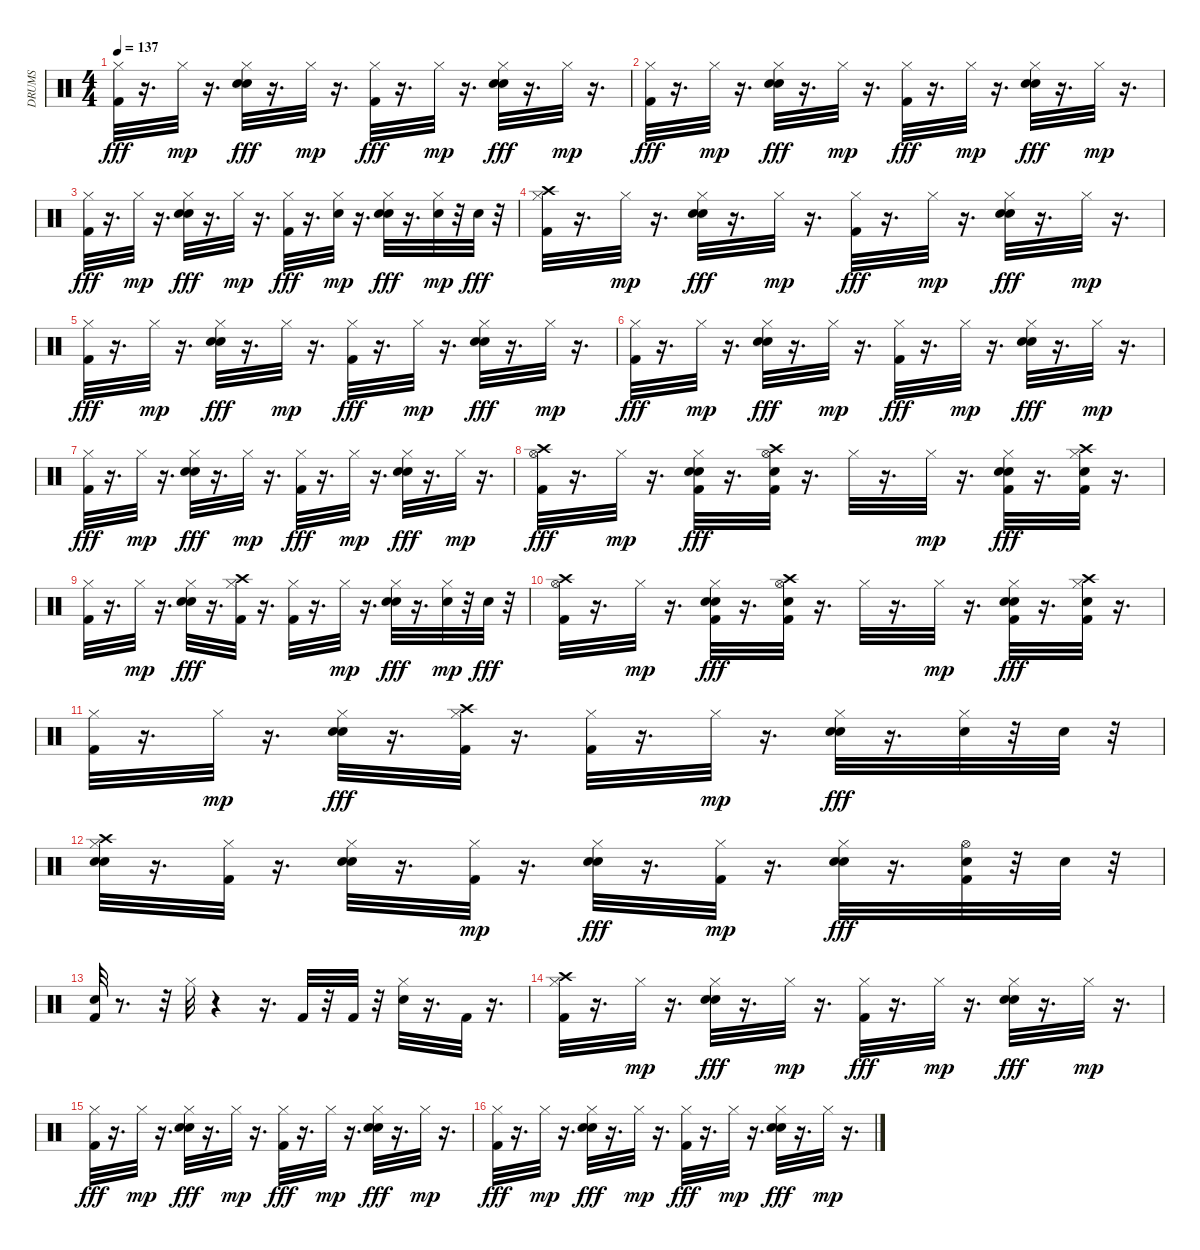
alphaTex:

\track ("DRUMS" "DRUMS") {instrument percussion}
\staff {score}
\articulation defaults
\ts (4 4)
\tempo 137
\clef neutral
\ks c
("Hi-Hat (closed)" "Kick (hit) 2").32{dy fff} r.16{d} "Hi-Hat (closed)".32{dy mp} r.16{d} ("Snare (hit) 2" "Hand Clap (hit)" "Hi-Hat (closed)").32{dy fff} r.16{d} "Hi-Hat (closed)".32{dy mp} r.16{d} ("Hi-Hat (closed)" "Kick (hit) 2").32{dy fff} r.16{d} "Hi-Hat (closed)".32{dy mp} r.16{d} ("Hand Clap (hit)" "Hi-Hat (closed)" "Snare (hit) 2").32{dy fff} r.16{d} "Hi-Hat (closed)".32{dy mp} r.16{d} |
("Hi-Hat (closed)" "Kick (hit) 2").32{dy fff} r.16{d} "Hi-Hat (closed)".32{dy mp} r.16{d} ("Hand Clap (hit)" "Hi-Hat (closed)" "Snare (hit) 2").32{dy fff} r.16{d} "Hi-Hat (closed)".32{dy mp} r.16{d} ("Hi-Hat (closed)" "Kick (hit) 2").32{dy fff} r.16{d} "Hi-Hat (closed)".32{dy mp} r.16{d} ("Hand Clap (hit)" "Hi-Hat (closed)" "Snare (hit) 2").32{dy fff} r.16{d} "Hi-Hat (closed)".32{dy mp} r.16{d} |
("Hi-Hat (closed)" "Kick (hit) 2").32{dy fff} r.16{d} "Hi-Hat (closed)".32{dy mp} r.16{d} ("Snare (hit) 2" "Hand Clap (hit)" "Hi-Hat (closed)").32{dy fff} r.16{d} "Hi-Hat (closed)".32{dy mp} r.16{d} ("Hi-Hat (closed)" "Kick (hit) 2").32{dy fff} r.16{d} ("Hand Clap (hit)" "Hi-Hat (closed)").32{dy mp} r.16{d} ("Hand Clap (hit)" "Hi-Hat (closed)" "Snare (hit) 2").32{dy fff} r.16{d} ("Snare (hit) 2" "Hi-Hat (closed)").32{dy mp} r.32 "Snare (hit) 2".32{dy fff} r.32 |
("Crash high (hit)" "Hi-Hat (closed)" "Kick (hit) 2").32 r.16{d} "Hi-Hat (closed)".32{dy mp} r.16{d} ("Hand Clap (hit)" "Hi-Hat (closed)" "Snare (hit) 2").32{dy fff} r.16{d} "Hi-Hat (closed)".32{dy mp} r.16{d} ("Hi-Hat (closed)" "Kick (hit) 2").32{dy fff} r.16{d} "Hi-Hat (closed)".32{dy mp} r.16{d} ("Hand Clap (hit)" "Hi-Hat (closed)" "Snare (hit) 2").32{dy fff} r.16{d} "Hi-Hat (closed)".32{dy mp} r.16{d} |
("Hi-Hat (closed)" "Kick (hit) 2").32{dy fff} r.16{d} "Hi-Hat (closed)".32{dy mp} r.16{d} ("Hand Clap (hit)" "Hi-Hat (closed)" "Snare (hit) 2").32{dy fff} r.16{d} "Hi-Hat (closed)".32{dy mp} r.16{d} ("Hi-Hat (closed)" "Kick (hit) 2").32{dy fff} r.16{d} "Hi-Hat (closed)".32{dy mp} r.16{d} ("Hand Clap (hit)" "Hi-Hat (closed)" "Snare (hit) 2").32{dy fff} r.16{d} "Hi-Hat (closed)".32{dy mp} r.16{d} |
("Hi-Hat (closed)" "Kick (hit) 2").32{dy fff} r.16{d} "Hi-Hat (closed)".32{dy mp} r.16{d} ("Hand Clap (hit)" "Hi-Hat (closed)" "Snare (hit) 2").32{dy fff} r.16{d} "Hi-Hat (closed)".32{dy mp} r.16{d} ("Hi-Hat (closed)" "Kick (hit) 2").32{dy fff} r.16{d} "Hi-Hat (closed)".32{dy mp} r.16{d} ("Snare (hit) 2" "Hand Clap (hit)" "Hi-Hat (closed)").32{dy fff} r.16{d} "Hi-Hat (closed)".32{dy mp} r.16{d} |
("Hi-Hat (closed)" "Kick (hit) 2").32{dy fff} r.16{d} "Hi-Hat (closed)".32{dy mp} r.16{d} ("Hand Clap (hit)" "Hi-Hat (closed)" "Snare (hit) 2").32{dy fff} r.16{d} "Hi-Hat (closed)".32{dy mp} r.16{d} ("Hi-Hat (closed)" "Kick (hit) 2").32{dy fff} r.16{d} "Hi-Hat (closed)".32{dy mp} r.16{d} ("Hand Clap (hit)" "Hi-Hat (closed)" "Snare (hit) 2").32{dy fff} r.16{d} "Hi-Hat (closed)".32{dy mp} r.16{d} |
("Crash high (hit)" "Hi-Hat (open)" "Kick (hit) 2").32{dy fff} r.16{d} "Hi-Hat (closed)".32{dy mp} r.16{d} ("Hand Clap (hit)" "Hi-Hat (closed)" "Snare (hit) 2" "Kick (hit) 2").32{dy fff} r.16{d} ("Crash high (hit)" "Hi-Hat (open)" "Snare (hit) 2" "Kick (hit) 2").32 r.16{d} "Hi-Hat (closed)".32 r.16{d} "Hi-Hat (closed)".32{dy mp} r.16{d} ("Hand Clap (hit)" "Hi-Hat (closed)" "Snare (hit) 2" "Kick (hit) 2").32{dy fff} r.16{d} ("Crash high (hit)" "Hi-Hat (closed)" "Snare (hit) 2" "Kick (hit) 2").32 r.16{d} |
("Hi-Hat (closed)" "Kick (hit) 2").32 r.16{d} "Hi-Hat (closed)".32{dy mp} r.16{d} ("Snare (hit) 2" "Hand Clap (hit)" "Hi-Hat (closed)").32{dy fff} r.16{d} ("Crash high (hit)" "Hi-Hat (closed)" "Kick (hit) 2").32 r.16{d} ("Hi-Hat (closed)" "Kick (hit) 2").32 r.16{d} "Hi-Hat (closed)".32{dy mp} r.16{d} ("Hand Clap (hit)" "Hi-Hat (closed)" "Snare (hit) 2").32{dy fff} r.16{d} ("Snare (hit) 2" "Hi-Hat (closed)").32{dy mp} r.32 "Snare (hit) 2".32{dy fff} r.32 |
("Hi-Hat (open)" "Crash high (hit)" "Kick (hit) 2").32 r.16{d} "Hi-Hat (closed)".32{dy mp} r.16{d} ("Hand Clap (hit)" "Hi-Hat (closed)" "Snare (hit) 2" "Kick (hit) 2").32{dy fff} r.16{d} ("Crash high (hit)" "Hi-Hat (open)" "Snare (hit) 2" "Kick (hit) 2").32 r.16{d} "Hi-Hat (closed)".32 r.16{d} "Hi-Hat (closed)".32{dy mp} r.16{d} ("Hand Clap (hit)" "Hi-Hat (closed)" "Snare (hit) 2" "Kick (hit) 2").32{dy fff} r.16{d} ("Crash high (hit)" "Hi-Hat (closed)" "Snare (hit) 2" "Kick (hit) 2").32 r.16{d} |
("Hi-Hat (closed)" "Kick (hit) 2").32 r.16{d} "Hi-Hat (closed)".32{dy mp} r.16{d} ("Hand Clap (hit)" "Hi-Hat (closed)" "Snare (hit) 2").32{dy fff} r.16{d} ("Crash high (hit)" "Hi-Hat (closed)" "Kick (hit) 2").32 r.16{d} ("Hi-Hat (closed)" "Kick (hit) 2").32 r.16{d} "Hi-Hat (closed)".32{dy mp} r.16{d} ("Hand Clap (hit)" "Hi-Hat (closed)" "Snare (hit) 2").32{dy fff} r.16{d} ("Hi-Hat (closed)" "Snare (hit) 2").32 r.32 "Snare (hit) 2".32 r.32 |
("Hand Clap (hit)" "Crash high (hit)" "Hi-Hat (closed)" "Snare (hit) 2").32 r.16{d} ("Hi-Hat (closed)" "Kick (hit) 2").32 r.16{d} ("Hand Clap (hit)" "Hi-Hat (closed)" "Snare (hit) 2").32 r.16{d} ("Kick (hit) 2" "Hi-Hat (closed)").32{dy mp} r.16{d} ("Hand Clap (hit)" "Hi-Hat (closed)" "Snare (hit) 2").32{dy fff} r.16{d} ("Kick (hit) 2" "Hi-Hat (closed)").32{dy mp} r.16{d} ("Hand Clap (hit)" "Hi-Hat (closed)" "Snare (hit) 2").32{dy fff} r.16{d} ("Hi-Hat (open)" "Snare (hit) 2" "Kick (hit) 2").32 r.32 "Snare (hit) 2".32 r.32 |
("Snare (hit) 2" "Kick (hit) 2").32 r.8{d} r.32 "Hi-Hat (closed)".32 r.4 r.16{d} "Kick (hit) 2".32 r.32 "Kick (hit) 2".32 r.32 ("Hi-Hat (closed)" "Snare (hit) 2").32 r.16{d} "Kick (hit) 2".32 r.16{d} |
("Crash high (hit)" "Hi-Hat (closed)" "Kick (hit) 2").32 r.16{d} "Hi-Hat (closed)".32{dy mp} r.16{d} ("Hand Clap (hit)" "Hi-Hat (closed)" "Snare (hit) 2").32{dy fff} r.16{d} "Hi-Hat (closed)".32{dy mp} r.16{d} ("Kick (hit) 2" "Hi-Hat (closed)").32{dy fff} r.16{d} "Hi-Hat (closed)".32{dy mp} r.16{d} ("Hand Clap (hit)" "Hi-Hat (closed)" "Snare (hit) 2").32{dy fff} r.16{d} "Hi-Hat (closed)".32{dy mp} r.16{d} |
("Hi-Hat (closed)" "Kick (hit) 2").32{dy fff} r.16{d} "Hi-Hat (closed)".32{dy mp} r.16{d} ("Hand Clap (hit)" "Hi-Hat (closed)" "Snare (hit) 2").32{dy fff} r.16{d} "Hi-Hat (closed)".32{dy mp} r.16{d} ("Hi-Hat (closed)" "Kick (hit) 2").32{dy fff} r.16{d} "Hi-Hat (closed)".32{dy mp} r.16{d} ("Snare (hit) 2" "Hand Clap (hit)" "Hi-Hat (closed)").32{dy fff} r.16{d} "Hi-Hat (closed)".32{dy mp} r.16{d} |
("Hi-Hat (closed)" "Kick (hit) 2").32{dy fff} r.16{d} "Hi-Hat (closed)".32{dy mp} r.16{d} ("Snare (hit) 2" "Hand Clap (hit)" "Hi-Hat (closed)").32{dy fff} r.16{d} "Hi-Hat (closed)".32{dy mp} r.16{d} ("Hi-Hat (closed)" "Kick (hit) 2").32{dy fff} r.16{d} "Hi-Hat (closed)".32{dy mp} r.16{d} ("Hand Clap (hit)" "Hi-Hat (closed)" "Snare (hit) 2").32{dy fff} r.16{d} "Hi-Hat (closed)".32{dy mp} r.16{d}
